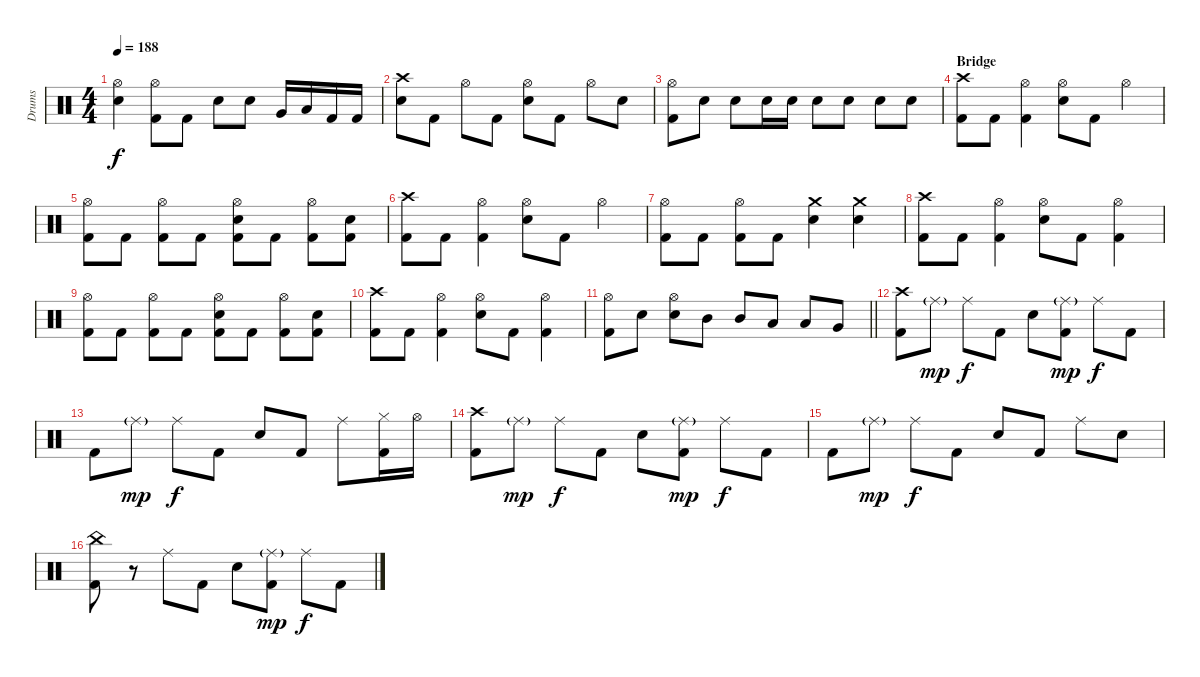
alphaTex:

\track ("Drums" "Drums") {instrument percussion}
\staff {score}
\articulation defaults
\ts (4 4)
\tempo 188
\clef neutral
\ks c
("Hi-Hat (open)" "Electric Snare (hit)").4{dy f} ("Hi-Hat (open)" "Kick (hit) 2").8 "Kick (hit) 2".8 "Electric Snare (hit)".8 "Electric Snare (hit)".8 "Very Low Tom (hit)".16 "Low Tom (hit)".16 "Kick (hit) 2".16 "Kick (hit) 2".16 |
("Crash high (hit)" "Electric Snare (hit)").8 "Kick (hit) 2".8 "Hi-Hat (open)".8 "Kick (hit) 2".8 ("Hi-Hat (open)" "Electric Snare (hit)").8 "Kick (hit) 2".8 "Hi-Hat (open)".8 "Electric Snare (hit)".8 |
("Hi-Hat (open)" "Kick (hit) 2").8 "Electric Snare (hit)".8 "Electric Snare (hit)".8 "Electric Snare (hit)".16 "Electric Snare (hit)".16 "Electric Snare (hit)".8 "Electric Snare (hit)".8 "Electric Snare (hit)".8 "Electric Snare (hit)".8 |
\section ("" "Bridge")
("Crash high (hit)" "Kick (hit) 2").8 "Kick (hit) 2".8 ("Hi-Hat (open)" "Kick (hit) 2").4 ("Hi-Hat (open)" "Electric Snare (hit)").8 "Kick (hit) 2".8 "Hi-Hat (open)".4 |
("Hi-Hat (open)" "Kick (hit) 2").8 "Kick (hit) 2".8 ("Hi-Hat (open)" "Kick (hit) 2").8 "Kick (hit) 2".8 ("Hi-Hat (open)" "Electric Snare (hit)" "Kick (hit) 2").8 "Kick (hit) 2".8 ("Hi-Hat (open)" "Kick (hit) 2").8 ("Electric Snare (hit)" "Kick (hit) 2").8 |
("Crash high (hit)" "Kick (hit) 2").8 "Kick (hit) 2".8 ("Hi-Hat (open)" "Kick (hit) 2").4 ("Hi-Hat (open)" "Electric Snare (hit)").8 "Kick (hit) 2".8 "Hi-Hat (open)".4 |
("Hi-Hat (open)" "Kick (hit) 2").8 "Kick (hit) 2".8 ("Hi-Hat (open)" "Kick (hit) 2").8 "Kick (hit) 2".8 ("Crash medium (hit)" "Electric Snare (hit)").4 ("Crash medium (hit)" "Electric Snare (hit)").4 |
("Crash high (hit)" "Kick (hit) 2").8 "Kick (hit) 2".8 ("Hi-Hat (open)" "Kick (hit) 2").4 ("Hi-Hat (open)" "Electric Snare (hit)").8 "Kick (hit) 2".8 ("Hi-Hat (open)" "Kick (hit) 2").4 |
("Hi-Hat (open)" "Kick (hit) 2").8 "Kick (hit) 2".8 ("Hi-Hat (open)" "Kick (hit) 2").8 "Kick (hit) 2".8 ("Hi-Hat (open)" "Electric Snare (hit)" "Kick (hit) 2").8 "Kick (hit) 2".8 ("Hi-Hat (open)" "Kick (hit) 2").8 ("Electric Snare (hit)" "Kick (hit) 2").8 |
("Crash high (hit)" "Kick (hit) 2").8 "Kick (hit) 2".8 ("Hi-Hat (open)" "Kick (hit) 2").4 ("Hi-Hat (open)" "Electric Snare (hit)").8 "Kick (hit) 2".8 ("Hi-Hat (open)" "Kick (hit) 2").4 |
\barLineRight lightlight
("Hi-Hat (open)" "Kick (hit) 2").8 "Electric Snare (hit)".8 ("Hi-Hat (open)" "Electric Snare (hit)").8 "Mid Tom (hit)".8 "Mid Tom (hit)".8 "Low Tom (hit)".8 "Low Tom (hit)".8 "Very Low Tom (hit)".8 |
("Crash high (hit)" "Kick (hit) 2").8 "Ride (middle)"{g}.8{dy mp} "Ride (middle)".8{dy f} "Kick (hit) 2".8 "Electric Snare (hit)".8 ("Ride (middle)"{g} "Kick (hit) 2").8{dy mp} "Ride (middle)".8{dy f} "Kick (hit) 2".8 |
"Kick (hit) 2".8 "Ride (middle)"{g}.8{dy mp} "Ride (middle)".8{dy f} "Kick (hit) 2".8 "Electric Snare (hit)".8 "Kick (hit) 2".8 "Ride (middle)".8 ("Hi-Hat (closed)" "Kick (hit) 2").16 "Hi-Hat (open)".16 |
("Crash high (hit)" "Kick (hit) 2").8 "Ride (middle)"{g}.8{dy mp} "Ride (middle)".8{dy f} "Kick (hit) 2".8 "Electric Snare (hit)".8 ("Ride (middle)"{g} "Kick (hit) 2").8{dy mp} "Ride (middle)".8{dy f} "Kick (hit) 2".8 |
"Kick (hit) 2".8 "Ride (middle)"{g}.8{dy mp} "Ride (middle)".8{dy f} "Kick (hit) 2".8 "Electric Snare (hit)".8 "Kick (hit) 2".8 "Ride (middle)".8 "Electric Snare (hit)".8 |
("China (hit)" "Kick (hit) 2").8 r.8 "Ride (middle)".8 "Kick (hit) 2".8 "Electric Snare (hit)".8 ("Ride (middle)"{g} "Kick (hit) 2").8{dy mp} "Ride (middle)".8{dy f} "Kick (hit) 2".8
